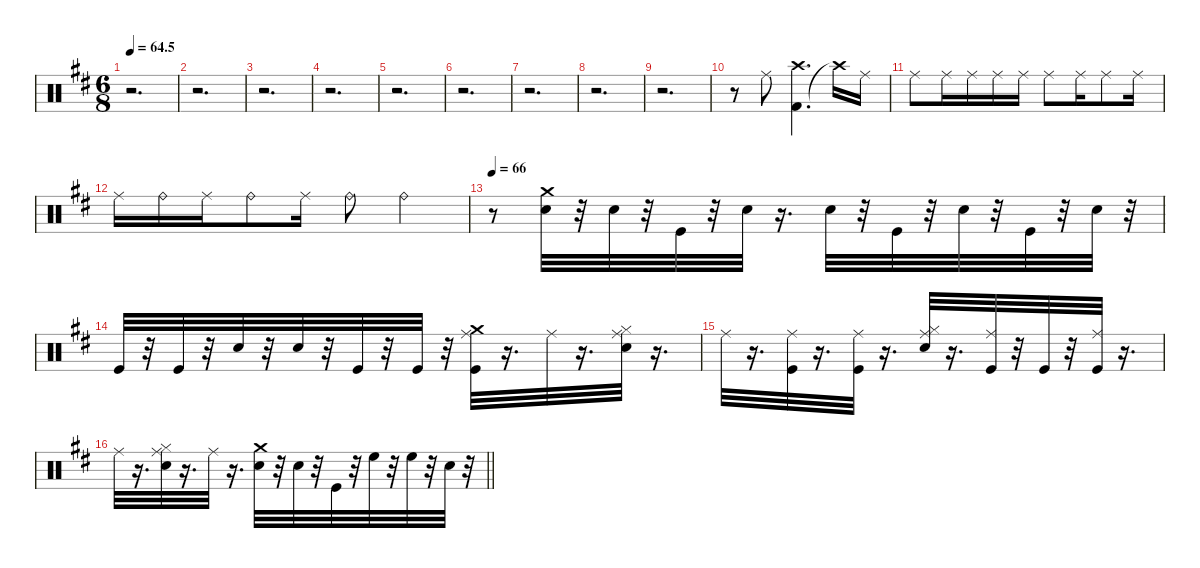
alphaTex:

\defaultSystemsLayout 4
\hideDynamics
\bracketExtendMode nobrackets
\singleTrackTrackNamePolicy hidden
\multiTrackTrackNamePolicy hidden
\firstSystemTrackNameMode fullname
\firstSystemTrackNameOrientation horizontal
\otherSystemsTrackNameOrientation horizontal
\track ("Drumkit" "drm.") {defaultSystemsLayout 4 instrument percussion}
\staff {score}
\articulation defaults
\ts (6 8)
\beaming (8 3 3)
\tempo
64.5
\accidentals auto
\clef neutral
\ottava regular
\simile none
\ks bminor
r.2{d dy mf beam Down} |
r.2{d beam Down} |
r.2{d beam Down} |
r.2{d beam Down} |
r.2{d beam Down} |
r.2{d beam Down} |
r.2{d beam Down} |
r.2{d beam Down} |
r.2{d beam Down} |
r.8{beam Down} "Ride (middle)"{acc forcenatural}.8{beam Down} ("Kick (hit) 2"{acc forcenatural} "Crash high (hit)"{acc forcenatural}).4{d beam Down} "Crash high (hit)"{t acc forcenatural}.16{beam Down} "Ride (middle)"{acc forcenatural}.16{beam Down} |
"Ride (middle)"{acc forcenatural}.8{beam Down} "Ride (middle)"{acc forcenatural}.16{beam Down} "Ride (middle)"{acc forcenatural}.16{beam Down} "Ride (middle)"{acc forcenatural}.16{beam Down} "Ride (middle)"{acc forcenatural}.16{beam Down} "Ride (middle)"{acc forcenatural}.8{beam Down} "Ride (middle)"{acc forcenatural}.16{beam Down} "Ride (middle)"{acc forcenatural}.8{beam Down} "Ride (middle)"{acc forcenatural}.16{beam Down} |
"Ride (middle)"{acc forcenatural}.16{beam Down} "Ride (bell)"{acc forcenatural}.16{beam Down} "Ride (middle)"{acc forcenatural}.16{beam Down} "Ride (bell)"{acc forcenatural}.8{beam Down} "Ride (middle)"{acc forcenatural}.16{beam Down} "Ride (bell)"{acc forcenatural}.8{beam Down} "Ride (bell)"{acc forcenatural}.4{beam Down} |
\tempo 66
r.8{beam Down} ("Electric Snare (hit)"{acc forcenatural} "Crash medium (hit)"{acc forcenatural}).32{dy fff beam Down} r.32{beam Down} "Electric Snare (hit)"{acc forcenatural}.32{dy pp beam Down} r.32{beam Down} "Kick (hit)"{acc forcenatural}.32{dy f beam Down} r.32{beam Down} "Electric Snare (hit)"{acc forcenatural}.32{beam Down} r.16{d beam Down} "Electric Snare (hit)"{acc forcenatural}.32{dy p beam Down} r.32{beam Down} "Kick (hit)"{acc forcenatural}.32{dy f beam Down} r.32{beam Down} "Electric Snare (hit)"{acc forcenatural}.32{dy mp beam Down} r.32{beam Down} "Kick (hit)"{acc forcenatural}.32{dy f beam Down} r.32{beam Down} "Electric Snare (hit)"{acc forcenatural}.32{dy mf beam Down} r.32{beam Down} |
"Kick (hit)"{acc forcenatural}.32{dy f beam Up} r.32{beam Up} "Kick (hit)"{acc forcenatural}.32{beam Up} r.32{beam Up} "Electric Snare (hit)"{acc forcenatural}.32{dy fff beam Up} r.32{beam Up} "Electric Snare (hit)"{acc forcenatural}.32{dy mf beam Up} r.32{beam Up} "Kick (hit)"{acc forcenatural}.32{dy f beam Up} r.32{beam Up} "Kick (hit)"{acc forcenatural}.32{beam Up} r.32{beam Up} ("Crash medium (hit)"{acc forcenatural} "Kick (hit)"{acc forcenatural} "Ride (middle)"{acc #}).32{dy fff beam Down} r.16{d beam Down} "Ride (middle)"{acc #}.32{dy f beam Down} r.16{d beam Down} ("Electric Snare (hit)"{acc forcenatural} "Hi-Hat (closed)"{acc #} "Ride (middle)"{acc #}).32{dy fff beam Down} r.16{d beam Down} |
"Ride (middle)"{acc #}.32{dy f beam Down} r.16{d beam Down} ("Kick (hit)"{acc forcenatural} "Ride (middle)"{acc #}).32{dy fff beam Down} r.16{d beam Down} ("Kick (hit)"{acc forcenatural} "Ride (middle)"{acc #}).32{dy f beam Down} r.16{d beam Down} ("Electric Snare (hit)"{acc forcenatural} "Hi-Hat (closed)"{acc #} "Ride (middle)"{acc #}).32{dy fff beam Up} r.16{d beam Up} ("Kick (hit)"{acc forcenatural} "Ride (middle)"{acc #}).32{dy mp beam Up} r.32{beam Up} "Kick (hit)"{acc forcenatural}.32{dy mf beam Up} r.32{beam Up} ("Kick (hit)"{acc forcenatural} "Ride (middle)"{acc #}).32{dy fff beam Up} r.16{d beam Up} |
\barLineRight lightlight "Ride (middle)"{acc #}.32{dy f beam Down}
r.16{d beam Down} ("Electric Snare (hit)"{acc forcenatural} "Hi-Hat (closed)"{acc #} "Ride (middle)"{acc #}).32{dy fff beam Down} r.16{d beam Down} "Ride (middle)"{acc #}.32{beam Down} r.16{d beam Down} ("Electric Snare (hit)"{acc forcenatural} "Crash medium (hit)"{acc forcenatural}).32{beam Down} r.32{beam Down} "Electric Snare (hit)"{acc forcenatural}.32{dy p beam Down} r.32{beam Down} "Kick (hit)"{acc forcenatural}.32{dy f beam Down} r.32{beam Down} "High Floor Tom (hit)"{acc forcenatural}.32{dy mf beam Down} r.32{beam Down} "High Floor Tom (hit)"{acc forcenatural}.32{dy fff beam Down} r.32{beam Down} "Electric Snare (hit)"{acc forcenatural}.32{dy pp beam Down} r.32{beam Down}
